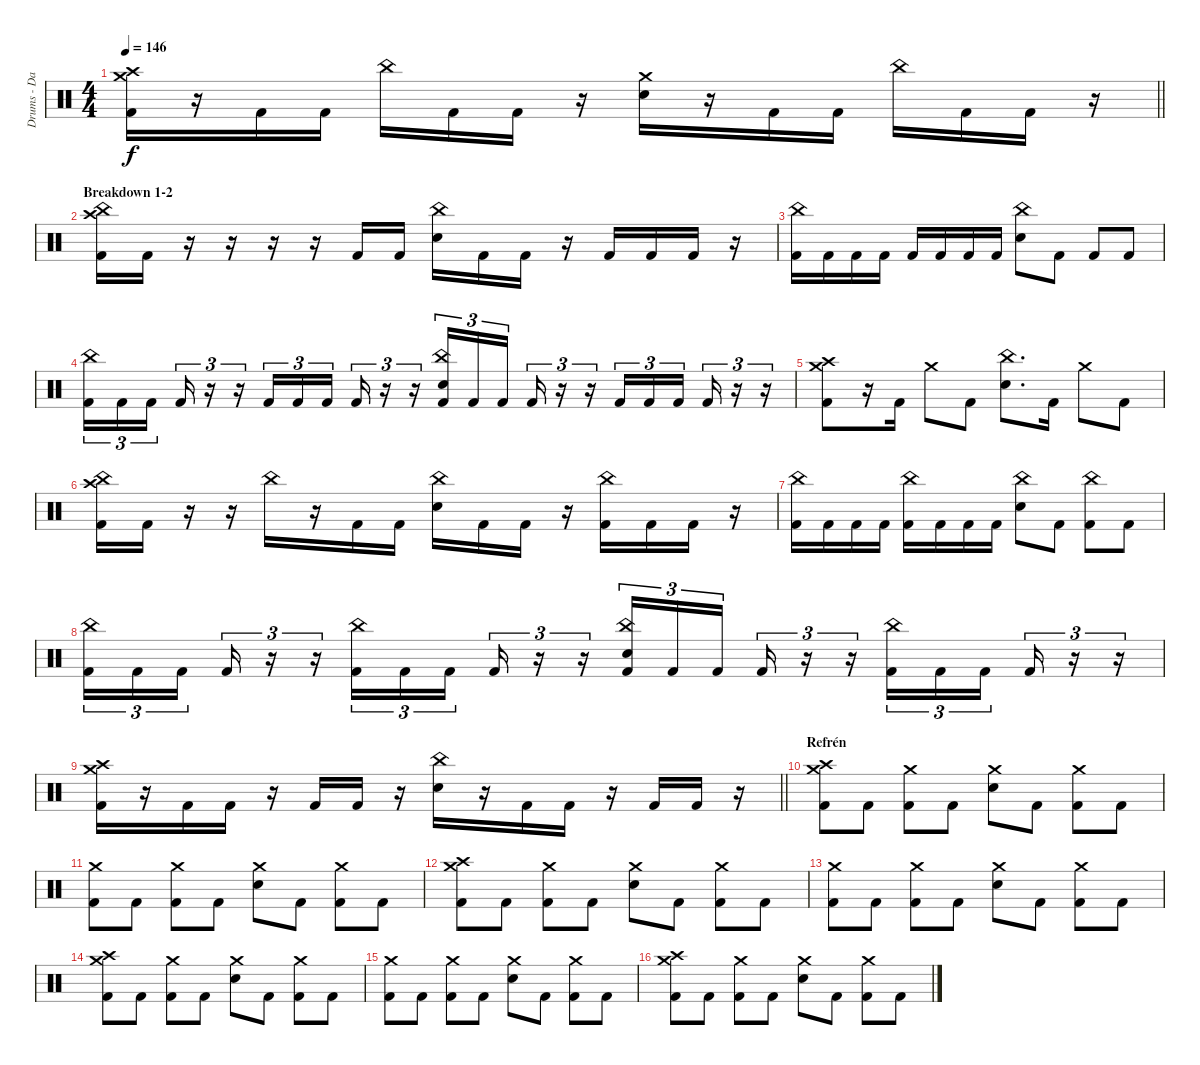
\track ("Drums - DaDa" "Drums - Da") {instrument percussion}
\staff {score}
\articulation defaults
\ts (4 4)
\tempo 146
\clef neutral
\barLineRight lightlight
\ks c
("Crash medium (hit)" "Crash high (hit)" "Kick (hit) 2").16{dy f} r.16 "Kick (hit) 2".16 "Kick (hit) 2".16 "China (hit)".16 "Kick (hit) 2".16 "Kick (hit) 2".16 r.16 ("Crash medium (hit)" "Electric Snare (hit)").16 r.16 "Kick (hit) 2".16 "Kick (hit) 2".16 "China (hit)".16 "Kick (hit) 2".16 "Kick (hit) 2".16 r.16 |
\section ("" "Breakdown 1-2")
("China (hit)" "Crash high (hit)" "Kick (hit) 2").16 "Kick (hit) 2".16 r.16 r.16 r.16 r.16 "Kick (hit) 2".16 "Kick (hit) 2".16 ("China (hit)" "Electric Snare (hit)").16 "Kick (hit) 2".16 "Kick (hit) 2".16 r.16 "Kick (hit) 2".16 "Kick (hit) 2".16 "Kick (hit) 2".16 r.16 |
("China (hit)" "Kick (hit) 2").16 "Kick (hit) 2".16 "Kick (hit) 2".16 "Kick (hit) 2".16 "Kick (hit) 2".16 "Kick (hit) 2".16 "Kick (hit) 2".16 "Kick (hit) 2".16 ("China (hit)" "Electric Snare (hit)").8 "Kick (hit) 2".8 "Kick (hit) 2".8 "Kick (hit) 2".8 |
("China (hit)" "Kick (hit) 2").16{tu (3 2)} "Kick (hit) 2".16{tu (3 2)} "Kick (hit) 2".16{tu (3 2) beam splitsecondary} "Kick (hit) 2".16{tu (3 2)} r.16{tu (3 2)} r.16{tu (3 2)} "Kick (hit) 2".16{tu (3 2)} "Kick (hit) 2".16{tu (3 2)} "Kick (hit) 2".16{tu (3 2) beam splitsecondary} "Kick (hit) 2".16{tu (3 2)} r.16{tu (3 2)} r.16{tu (3 2)} ("China (hit)" "Electric Snare (hit)" "Kick (hit) 2").16{tu (3 2)} "Kick (hit) 2".16{tu (3 2)} "Kick (hit) 2".16{tu (3 2) beam splitsecondary} "Kick (hit) 2".16{tu (3 2)} r.16{tu (3 2)} r.16{tu (3 2)} "Kick (hit) 2".16{tu (3 2)} "Kick (hit) 2".16{tu (3 2)} "Kick (hit) 2".16{tu (3 2) beam splitsecondary} "Kick (hit) 2".16{tu (3 2)} r.16{tu (3 2)} r.16{tu (3 2)} |
("Crash medium (hit)" "Crash high (hit)" "Kick (hit) 2").8 r.16 "Kick (hit) 2".16 "Crash medium (hit)".8 "Kick (hit) 2".8 ("China (hit)" "Electric Snare (hit)").8{d} "Kick (hit) 2".16 "Crash medium (hit)".8 "Kick (hit) 2".8 |
("China (hit)" "Crash high (hit)" "Kick (hit) 2").16 "Kick (hit) 2".16 r.16 r.16 "China (hit)".16 r.16 "Kick (hit) 2".16 "Kick (hit) 2".16 ("China (hit)" "Electric Snare (hit)").16 "Kick (hit) 2".16 "Kick (hit) 2".16 r.16 ("China (hit)" "Kick (hit) 2").16 "Kick (hit) 2".16 "Kick (hit) 2".16 r.16 |
("China (hit)" "Kick (hit) 2").16 "Kick (hit) 2".16 "Kick (hit) 2".16 "Kick (hit) 2".16 ("China (hit)" "Kick (hit) 2").16 "Kick (hit) 2".16 "Kick (hit) 2".16 "Kick (hit) 2".16 ("China (hit)" "Electric Snare (hit)").8 "Kick (hit) 2".8 ("China (hit)" "Kick (hit) 2").8 "Kick (hit) 2".8 |
("China (hit)" "Kick (hit) 2").16{tu (3 2)} "Kick (hit) 2".16{tu (3 2)} "Kick (hit) 2".16{tu (3 2) beam splitsecondary} "Kick (hit) 2".16{tu (3 2)} r.16{tu (3 2)} r.16{tu (3 2)} ("China (hit)" "Kick (hit) 2").16{tu (3 2)} "Kick (hit) 2".16{tu (3 2)} "Kick (hit) 2".16{tu (3 2) beam splitsecondary} "Kick (hit) 2".16{tu (3 2)} r.16{tu (3 2)} r.16{tu (3 2)} ("China (hit)" "Electric Snare (hit)" "Kick (hit) 2").16{tu (3 2)} "Kick (hit) 2".16{tu (3 2)} "Kick (hit) 2".16{tu (3 2) beam splitsecondary} "Kick (hit) 2".16{tu (3 2)} r.16{tu (3 2)} r.16{tu (3 2)} ("China (hit)" "Kick (hit) 2").16{tu (3 2)} "Kick (hit) 2".16{tu (3 2)} "Kick (hit) 2".16{tu (3 2) beam splitsecondary} "Kick (hit) 2".16{tu (3 2)} r.16{tu (3 2)} r.16{tu (3 2)} |
\barLineRight lightlight
("Crash medium (hit)" "Crash high (hit)" "Kick (hit) 2").16 r.16 "Kick (hit) 2".16 "Kick (hit) 2".16 r.16 "Kick (hit) 2".16 "Kick (hit) 2".16 r.16 ("China (hit)" "Electric Snare (hit)").16 r.16 "Kick (hit) 2".16 "Kick (hit) 2".16 r.16 "Kick (hit) 2".16 "Kick (hit) 2".16 r.16 |
\section ("" "Refrén")
("Crash medium (hit)" "Crash high (hit)" "Kick (hit) 2").8 "Kick (hit) 2".8 ("Crash medium (hit)" "Kick (hit) 2").8 "Kick (hit) 2".8 ("Crash medium (hit)" "Electric Snare (hit)").8 "Kick (hit) 2".8 ("Crash medium (hit)" "Kick (hit) 2").8 "Kick (hit) 2".8 |
("Crash medium (hit)" "Kick (hit) 2").8 "Kick (hit) 2".8 ("Crash medium (hit)" "Kick (hit) 2").8 "Kick (hit) 2".8 ("Crash medium (hit)" "Electric Snare (hit)").8 "Kick (hit) 2".8 ("Crash medium (hit)" "Kick (hit) 2").8 "Kick (hit) 2".8 |
("Crash medium (hit)" "Crash high (hit)" "Kick (hit) 2").8 "Kick (hit) 2".8 ("Crash medium (hit)" "Kick (hit) 2").8 "Kick (hit) 2".8 ("Crash medium (hit)" "Electric Snare (hit)").8 "Kick (hit) 2".8 ("Crash medium (hit)" "Kick (hit) 2").8 "Kick (hit) 2".8 |
("Crash medium (hit)" "Kick (hit) 2").8 "Kick (hit) 2".8 ("Crash medium (hit)" "Kick (hit) 2").8 "Kick (hit) 2".8 ("Crash medium (hit)" "Electric Snare (hit)").8 "Kick (hit) 2".8 ("Crash medium (hit)" "Kick (hit) 2").8 "Kick (hit) 2".8 |
("Crash medium (hit)" "Crash high (hit)" "Kick (hit) 2").8 "Kick (hit) 2".8 ("Crash medium (hit)" "Kick (hit) 2").8 "Kick (hit) 2".8 ("Crash medium (hit)" "Electric Snare (hit)").8 "Kick (hit) 2".8 ("Crash medium (hit)" "Kick (hit) 2").8 "Kick (hit) 2".8 |
("Crash medium (hit)" "Kick (hit) 2").8 "Kick (hit) 2".8 ("Crash medium (hit)" "Kick (hit) 2").8 "Kick (hit) 2".8 ("Crash medium (hit)" "Electric Snare (hit)").8 "Kick (hit) 2".8 ("Crash medium (hit)" "Kick (hit) 2").8 "Kick (hit) 2".8 |
("Crash medium (hit)" "Crash high (hit)" "Kick (hit) 2").8 "Kick (hit) 2".8 ("Crash medium (hit)" "Kick (hit) 2").8 "Kick (hit) 2".8 ("Crash medium (hit)" "Electric Snare (hit)").8 "Kick (hit) 2".8 ("Crash medium (hit)" "Kick (hit) 2").8 "Kick (hit) 2".8
